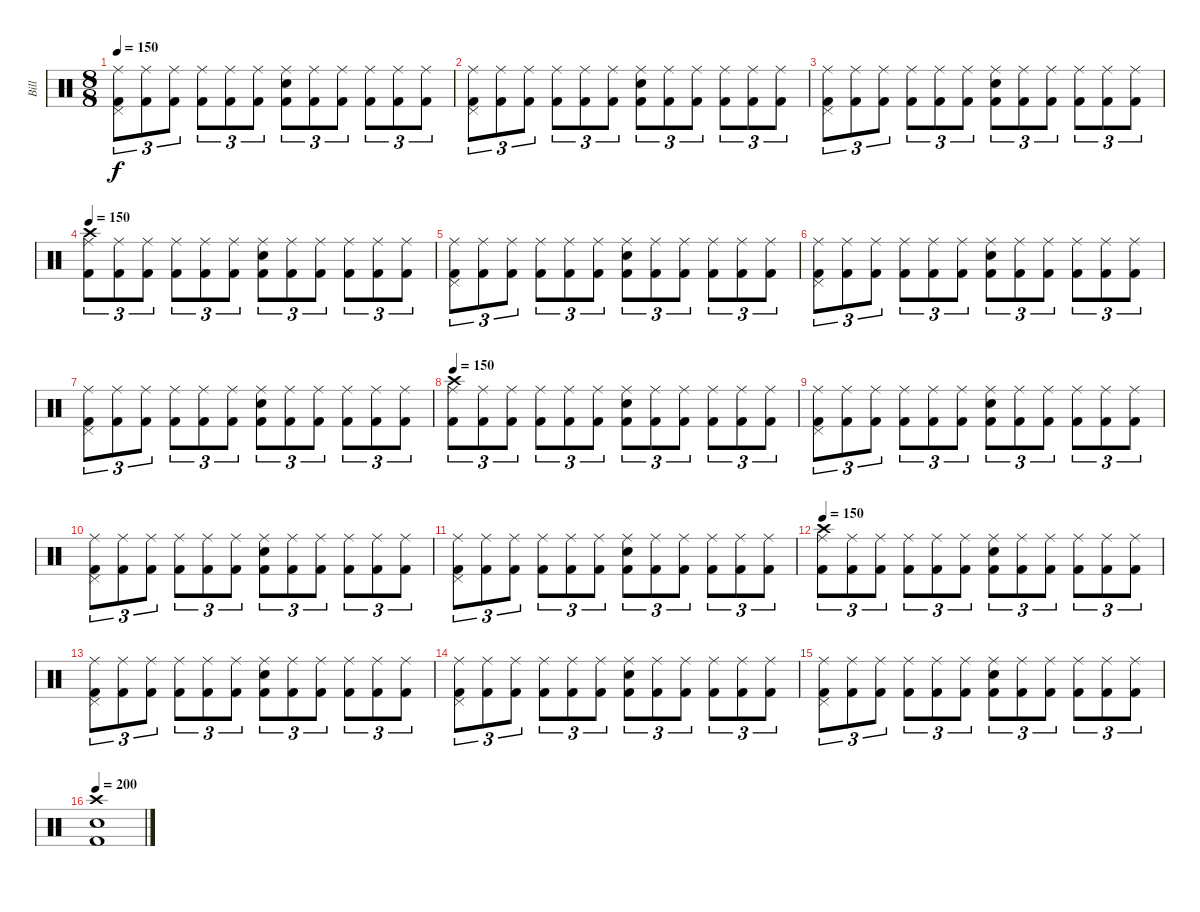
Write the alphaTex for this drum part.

\track ("Bill" "Bill") {instrument percussion}
\staff {score}
\articulation defaults
\ts (8 8)
\tempo 150
\clef neutral
\ks c
("Ride (middle)" "Pedal Hi-Hat (hit)" "Kick (hit) 2").8{tu (3 2) dy f} ("Ride (middle)" "Kick (hit) 2").8{tu (3 2)} ("Ride (middle)" "Kick (hit) 2").8{tu (3 2)} ("Ride (middle)" "Kick (hit) 2").8{tu (3 2)} ("Ride (middle)" "Kick (hit) 2").8{tu (3 2)} ("Ride (middle)" "Kick (hit) 2").8{tu (3 2)} ("Ride (middle)" "Snare (hit) 2" "Kick (hit) 2").8{tu (3 2)} ("Ride (middle)" "Kick (hit) 2").8{tu (3 2)} ("Ride (middle)" "Kick (hit) 2").8{tu (3 2)} ("Ride (middle)" "Kick (hit) 2").8{tu (3 2)} ("Ride (middle)" "Kick (hit) 2").8{tu (3 2)} ("Ride (middle)" "Kick (hit) 2").8{tu (3 2)} |
("Ride (middle)" "Pedal Hi-Hat (hit)" "Kick (hit) 2").8{tu (3 2)} ("Ride (middle)" "Kick (hit) 2").8{tu (3 2)} ("Ride (middle)" "Kick (hit) 2").8{tu (3 2)} ("Ride (middle)" "Kick (hit) 2").8{tu (3 2)} ("Ride (middle)" "Kick (hit) 2").8{tu (3 2)} ("Ride (middle)" "Kick (hit) 2").8{tu (3 2)} ("Ride (middle)" "Snare (hit) 2" "Kick (hit) 2").8{tu (3 2)} ("Ride (middle)" "Kick (hit) 2").8{tu (3 2)} ("Ride (middle)" "Kick (hit) 2").8{tu (3 2)} ("Ride (middle)" "Kick (hit) 2").8{tu (3 2)} ("Ride (middle)" "Kick (hit) 2").8{tu (3 2)} ("Ride (middle)" "Kick (hit) 2").8{tu (3 2)} |
("Ride (middle)" "Pedal Hi-Hat (hit)" "Kick (hit) 2").8{tu (3 2)} ("Ride (middle)" "Kick (hit) 2").8{tu (3 2)} ("Ride (middle)" "Kick (hit) 2").8{tu (3 2)} ("Ride (middle)" "Kick (hit) 2").8{tu (3 2)} ("Ride (middle)" "Kick (hit) 2").8{tu (3 2)} ("Ride (middle)" "Kick (hit) 2").8{tu (3 2)} ("Ride (middle)" "Snare (hit) 2" "Kick (hit) 2").8{tu (3 2)} ("Ride (middle)" "Kick (hit) 2").8{tu (3 2)} ("Ride (middle)" "Kick (hit) 2").8{tu (3 2)} ("Ride (middle)" "Kick (hit) 2").8{tu (3 2)} ("Ride (middle)" "Kick (hit) 2").8{tu (3 2)} ("Ride (middle)" "Kick (hit) 2").8{tu (3 2)} |
\tempo 150
("Ride (middle)" "Crash high (hit)" "Kick (hit) 2").8{tu (3 2)} ("Ride (middle)" "Kick (hit) 2").8{tu (3 2)} ("Ride (middle)" "Kick (hit) 2").8{tu (3 2)} ("Ride (middle)" "Kick (hit) 2").8{tu (3 2)} ("Ride (middle)" "Kick (hit) 2").8{tu (3 2)} ("Ride (middle)" "Kick (hit) 2").8{tu (3 2)} ("Ride (middle)" "Snare (hit) 2" "Kick (hit) 2").8{tu (3 2)} ("Ride (middle)" "Kick (hit) 2").8{tu (3 2)} ("Ride (middle)" "Kick (hit) 2").8{tu (3 2)} ("Ride (middle)" "Kick (hit) 2").8{tu (3 2)} ("Ride (middle)" "Kick (hit) 2").8{tu (3 2)} ("Ride (middle)" "Kick (hit) 2").8{tu (3 2)} |
("Ride (middle)" "Pedal Hi-Hat (hit)" "Kick (hit) 2").8{tu (3 2)} ("Ride (middle)" "Kick (hit) 2").8{tu (3 2)} ("Ride (middle)" "Kick (hit) 2").8{tu (3 2)} ("Ride (middle)" "Kick (hit) 2").8{tu (3 2)} ("Ride (middle)" "Kick (hit) 2").8{tu (3 2)} ("Ride (middle)" "Kick (hit) 2").8{tu (3 2)} ("Ride (middle)" "Snare (hit) 2" "Kick (hit) 2").8{tu (3 2)} ("Ride (middle)" "Kick (hit) 2").8{tu (3 2)} ("Ride (middle)" "Kick (hit) 2").8{tu (3 2)} ("Ride (middle)" "Kick (hit) 2").8{tu (3 2)} ("Ride (middle)" "Kick (hit) 2").8{tu (3 2)} ("Ride (middle)" "Kick (hit) 2").8{tu (3 2)} |
("Ride (middle)" "Pedal Hi-Hat (hit)" "Kick (hit) 2").8{tu (3 2)} ("Ride (middle)" "Kick (hit) 2").8{tu (3 2)} ("Ride (middle)" "Kick (hit) 2").8{tu (3 2)} ("Ride (middle)" "Kick (hit) 2").8{tu (3 2)} ("Ride (middle)" "Kick (hit) 2").8{tu (3 2)} ("Ride (middle)" "Kick (hit) 2").8{tu (3 2)} ("Ride (middle)" "Snare (hit) 2" "Kick (hit) 2").8{tu (3 2)} ("Ride (middle)" "Kick (hit) 2").8{tu (3 2)} ("Ride (middle)" "Kick (hit) 2").8{tu (3 2)} ("Ride (middle)" "Kick (hit) 2").8{tu (3 2)} ("Ride (middle)" "Kick (hit) 2").8{tu (3 2)} ("Ride (middle)" "Kick (hit) 2").8{tu (3 2)} |
("Ride (middle)" "Pedal Hi-Hat (hit)" "Kick (hit) 2").8{tu (3 2)} ("Ride (middle)" "Kick (hit) 2").8{tu (3 2)} ("Ride (middle)" "Kick (hit) 2").8{tu (3 2)} ("Ride (middle)" "Kick (hit) 2").8{tu (3 2)} ("Ride (middle)" "Kick (hit) 2").8{tu (3 2)} ("Ride (middle)" "Kick (hit) 2").8{tu (3 2)} ("Ride (middle)" "Snare (hit) 2" "Kick (hit) 2").8{tu (3 2)} ("Ride (middle)" "Kick (hit) 2").8{tu (3 2)} ("Ride (middle)" "Kick (hit) 2").8{tu (3 2)} ("Ride (middle)" "Kick (hit) 2").8{tu (3 2)} ("Ride (middle)" "Kick (hit) 2").8{tu (3 2)} ("Ride (middle)" "Kick (hit) 2").8{tu (3 2)} |
\tempo 150
("Ride (middle)" "Crash high (hit)" "Kick (hit) 2").8{tu (3 2)} ("Ride (middle)" "Kick (hit) 2").8{tu (3 2)} ("Ride (middle)" "Kick (hit) 2").8{tu (3 2)} ("Ride (middle)" "Kick (hit) 2").8{tu (3 2)} ("Ride (middle)" "Kick (hit) 2").8{tu (3 2)} ("Ride (middle)" "Kick (hit) 2").8{tu (3 2)} ("Ride (middle)" "Snare (hit) 2" "Kick (hit) 2").8{tu (3 2)} ("Ride (middle)" "Kick (hit) 2").8{tu (3 2)} ("Ride (middle)" "Kick (hit) 2").8{tu (3 2)} ("Ride (middle)" "Kick (hit) 2").8{tu (3 2)} ("Ride (middle)" "Kick (hit) 2").8{tu (3 2)} ("Ride (middle)" "Kick (hit) 2").8{tu (3 2)} |
("Ride (middle)" "Pedal Hi-Hat (hit)" "Kick (hit) 2").8{tu (3 2)} ("Ride (middle)" "Kick (hit) 2").8{tu (3 2)} ("Ride (middle)" "Kick (hit) 2").8{tu (3 2)} ("Ride (middle)" "Kick (hit) 2").8{tu (3 2)} ("Ride (middle)" "Kick (hit) 2").8{tu (3 2)} ("Ride (middle)" "Kick (hit) 2").8{tu (3 2)} ("Ride (middle)" "Snare (hit) 2" "Kick (hit) 2").8{tu (3 2)} ("Ride (middle)" "Kick (hit) 2").8{tu (3 2)} ("Ride (middle)" "Kick (hit) 2").8{tu (3 2)} ("Ride (middle)" "Kick (hit) 2").8{tu (3 2)} ("Ride (middle)" "Kick (hit) 2").8{tu (3 2)} ("Ride (middle)" "Kick (hit) 2").8{tu (3 2)} |
("Ride (middle)" "Pedal Hi-Hat (hit)" "Kick (hit) 2").8{tu (3 2)} ("Ride (middle)" "Kick (hit) 2").8{tu (3 2)} ("Ride (middle)" "Kick (hit) 2").8{tu (3 2)} ("Ride (middle)" "Kick (hit) 2").8{tu (3 2)} ("Ride (middle)" "Kick (hit) 2").8{tu (3 2)} ("Ride (middle)" "Kick (hit) 2").8{tu (3 2)} ("Ride (middle)" "Snare (hit) 2" "Kick (hit) 2").8{tu (3 2)} ("Ride (middle)" "Kick (hit) 2").8{tu (3 2)} ("Ride (middle)" "Kick (hit) 2").8{tu (3 2)} ("Ride (middle)" "Kick (hit) 2").8{tu (3 2)} ("Ride (middle)" "Kick (hit) 2").8{tu (3 2)} ("Ride (middle)" "Kick (hit) 2").8{tu (3 2)} |
("Ride (middle)" "Pedal Hi-Hat (hit)" "Kick (hit) 2").8{tu (3 2)} ("Ride (middle)" "Kick (hit) 2").8{tu (3 2)} ("Ride (middle)" "Kick (hit) 2").8{tu (3 2)} ("Ride (middle)" "Kick (hit) 2").8{tu (3 2)} ("Ride (middle)" "Kick (hit) 2").8{tu (3 2)} ("Ride (middle)" "Kick (hit) 2").8{tu (3 2)} ("Ride (middle)" "Snare (hit) 2" "Kick (hit) 2").8{tu (3 2)} ("Ride (middle)" "Kick (hit) 2").8{tu (3 2)} ("Ride (middle)" "Kick (hit) 2").8{tu (3 2)} ("Ride (middle)" "Kick (hit) 2").8{tu (3 2)} ("Ride (middle)" "Kick (hit) 2").8{tu (3 2)} ("Ride (middle)" "Kick (hit) 2").8{tu (3 2)} |
\tempo 150
("Ride (middle)" "Crash high (hit)" "Kick (hit) 2").8{tu (3 2)} ("Ride (middle)" "Kick (hit) 2").8{tu (3 2)} ("Ride (middle)" "Kick (hit) 2").8{tu (3 2)} ("Ride (middle)" "Kick (hit) 2").8{tu (3 2)} ("Ride (middle)" "Kick (hit) 2").8{tu (3 2)} ("Ride (middle)" "Kick (hit) 2").8{tu (3 2)} ("Ride (middle)" "Snare (hit) 2" "Kick (hit) 2").8{tu (3 2)} ("Ride (middle)" "Kick (hit) 2").8{tu (3 2)} ("Ride (middle)" "Kick (hit) 2").8{tu (3 2)} ("Ride (middle)" "Kick (hit) 2").8{tu (3 2)} ("Ride (middle)" "Kick (hit) 2").8{tu (3 2)} ("Ride (middle)" "Kick (hit) 2").8{tu (3 2)} |
("Ride (middle)" "Pedal Hi-Hat (hit)" "Kick (hit) 2").8{tu (3 2)} ("Ride (middle)" "Kick (hit) 2").8{tu (3 2)} ("Ride (middle)" "Kick (hit) 2").8{tu (3 2)} ("Ride (middle)" "Kick (hit) 2").8{tu (3 2)} ("Ride (middle)" "Kick (hit) 2").8{tu (3 2)} ("Ride (middle)" "Kick (hit) 2").8{tu (3 2)} ("Ride (middle)" "Snare (hit) 2" "Kick (hit) 2").8{tu (3 2)} ("Ride (middle)" "Kick (hit) 2").8{tu (3 2)} ("Ride (middle)" "Kick (hit) 2").8{tu (3 2)} ("Ride (middle)" "Kick (hit) 2").8{tu (3 2)} ("Ride (middle)" "Kick (hit) 2").8{tu (3 2)} ("Ride (middle)" "Kick (hit) 2").8{tu (3 2)} |
("Ride (middle)" "Pedal Hi-Hat (hit)" "Kick (hit) 2").8{tu (3 2)} ("Ride (middle)" "Kick (hit) 2").8{tu (3 2)} ("Ride (middle)" "Kick (hit) 2").8{tu (3 2)} ("Ride (middle)" "Kick (hit) 2").8{tu (3 2)} ("Ride (middle)" "Kick (hit) 2").8{tu (3 2)} ("Ride (middle)" "Kick (hit) 2").8{tu (3 2)} ("Ride (middle)" "Snare (hit) 2" "Kick (hit) 2").8{tu (3 2)} ("Ride (middle)" "Kick (hit) 2").8{tu (3 2)} ("Ride (middle)" "Kick (hit) 2").8{tu (3 2)} ("Ride (middle)" "Kick (hit) 2").8{tu (3 2)} ("Ride (middle)" "Kick (hit) 2").8{tu (3 2)} ("Ride (middle)" "Kick (hit) 2").8{tu (3 2)} |
("Ride (middle)" "Pedal Hi-Hat (hit)" "Kick (hit) 2").8{tu (3 2)} ("Ride (middle)" "Kick (hit) 2").8{tu (3 2)} ("Ride (middle)" "Kick (hit) 2").8{tu (3 2)} ("Ride (middle)" "Kick (hit) 2").8{tu (3 2)} ("Ride (middle)" "Kick (hit) 2").8{tu (3 2)} ("Ride (middle)" "Kick (hit) 2").8{tu (3 2)} ("Ride (middle)" "Snare (hit) 2" "Kick (hit) 2").8{tu (3 2)} ("Ride (middle)" "Kick (hit) 2").8{tu (3 2)} ("Ride (middle)" "Kick (hit) 2").8{tu (3 2)} ("Ride (middle)" "Kick (hit) 2").8{tu (3 2)} ("Ride (middle)" "Kick (hit) 2").8{tu (3 2)} ("Ride (middle)" "Kick (hit) 2").8{tu (3 2)} |
\tempo 200
("Crash high (hit)" "Snare (hit) 2" "Kick (hit) 2").1
